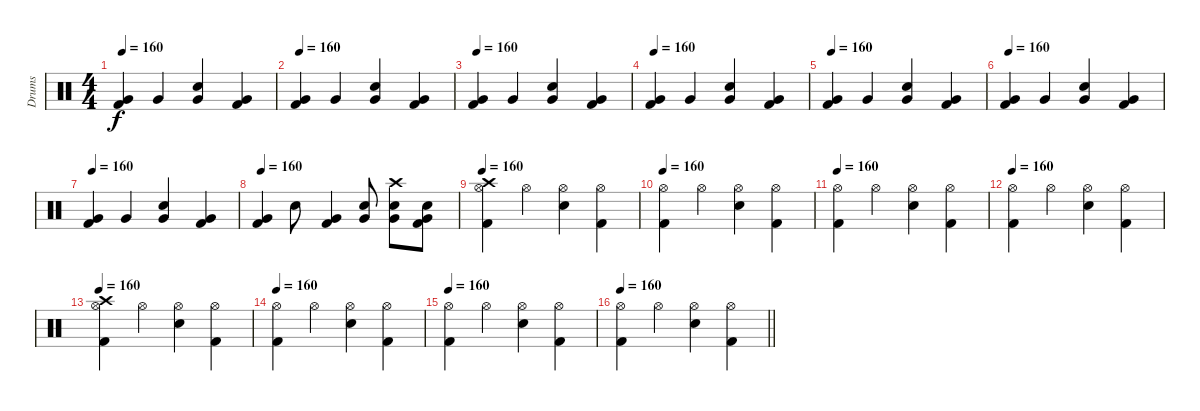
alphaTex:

\track ("Drums" "Drums") {instrument percussion}
\staff {score}
\articulation defaults
\ts (4 4)
\tempo 160
\clef neutral
\ks c
("Very Low Tom (hit)" "Kick (hit) 2").4{dy f} "Very Low Tom (hit)".4 ("Very Low Tom (hit)" "Snare (hit) 2").4 ("Very Low Tom (hit)" "Kick (hit) 2").4 |
\tempo 160
("Very Low Tom (hit)" "Kick (hit) 2").4 "Very Low Tom (hit)".4 ("Very Low Tom (hit)" "Snare (hit) 2").4 ("Very Low Tom (hit)" "Kick (hit) 2").4 |
\tempo 160
("Very Low Tom (hit)" "Kick (hit) 2").4 "Very Low Tom (hit)".4 ("Very Low Tom (hit)" "Snare (hit) 2").4 ("Very Low Tom (hit)" "Kick (hit) 2").4 |
\tempo 160
("Very Low Tom (hit)" "Kick (hit) 2").4 "Very Low Tom (hit)".4 ("Very Low Tom (hit)" "Snare (hit) 2").4 ("Very Low Tom (hit)" "Kick (hit) 2").4 |
\tempo 160
("Very Low Tom (hit)" "Kick (hit) 2").4 "Very Low Tom (hit)".4 ("Very Low Tom (hit)" "Snare (hit) 2").4 ("Very Low Tom (hit)" "Kick (hit) 2").4 |
\tempo 160
("Very Low Tom (hit)" "Kick (hit) 2").4 "Very Low Tom (hit)".4 ("Very Low Tom (hit)" "Snare (hit) 2").4 ("Very Low Tom (hit)" "Kick (hit) 2").4 |
\tempo 160
("Very Low Tom (hit)" "Kick (hit) 2").4 "Very Low Tom (hit)".4 ("Very Low Tom (hit)" "Snare (hit) 2").4 ("Very Low Tom (hit)" "Kick (hit) 2").4 |
\tempo 160
("Very Low Tom (hit)" "Kick (hit) 2").4 "Snare (hit) 2".8 ("Very Low Tom (hit)" "Kick (hit) 2").4 ("Very Low Tom (hit)" "Snare (hit) 2").8 ("Crash high (hit)" "Very Low Tom (hit)" "Snare (hit) 2").8 ("Very Low Tom (hit)" "Snare (hit) 2" "Kick (hit) 2").8 |
\tempo 160
("Crash high (hit)" "Hi-Hat (open)" "Kick (hit) 2").4 "Hi-Hat (open)".4 ("Hi-Hat (open)" "Snare (hit) 2").4 ("Hi-Hat (open)" "Kick (hit) 2").4 |
\tempo 160
("Hi-Hat (open)" "Kick (hit) 2").4 "Hi-Hat (open)".4 ("Hi-Hat (open)" "Snare (hit) 2").4 ("Hi-Hat (open)" "Kick (hit) 2").4 |
\tempo 160
("Hi-Hat (open)" "Kick (hit) 2").4 "Hi-Hat (open)".4 ("Hi-Hat (open)" "Snare (hit) 2").4 ("Hi-Hat (open)" "Kick (hit) 2").4 |
\tempo 160
("Hi-Hat (open)" "Kick (hit) 2").4 "Hi-Hat (open)".4 ("Hi-Hat (open)" "Snare (hit) 2").4 ("Hi-Hat (open)" "Kick (hit) 2").4 |
\tempo 160
("Crash high (hit)" "Hi-Hat (open)" "Kick (hit) 2").4 "Hi-Hat (open)".4 ("Hi-Hat (open)" "Snare (hit) 2").4 ("Hi-Hat (open)" "Kick (hit) 2").4 |
\tempo 160
("Hi-Hat (open)" "Kick (hit) 2").4 "Hi-Hat (open)".4 ("Hi-Hat (open)" "Snare (hit) 2").4 ("Hi-Hat (open)" "Kick (hit) 2").4 |
\tempo 160
("Hi-Hat (open)" "Kick (hit) 2").4 "Hi-Hat (open)".4 ("Hi-Hat (open)" "Snare (hit) 2").4 ("Hi-Hat (open)" "Kick (hit) 2").4 |
\tempo 160
\barLineRight lightlight
("Hi-Hat (open)" "Kick (hit) 2").4 "Hi-Hat (open)".4 ("Hi-Hat (open)" "Snare (hit) 2").4 ("Hi-Hat (open)" "Kick (hit) 2").4
